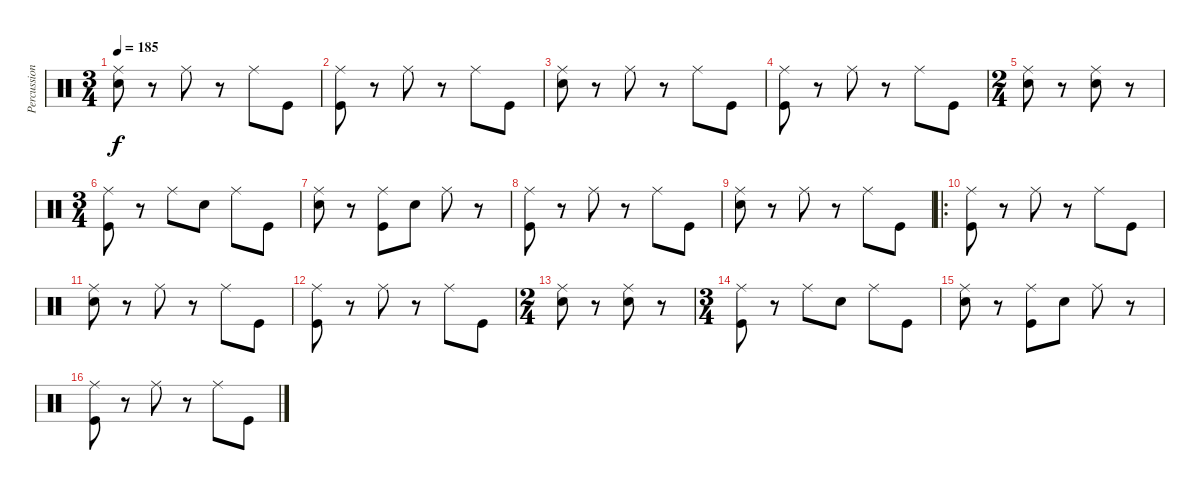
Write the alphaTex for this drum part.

\track ("Percussion" "Percussion") {instrument percussion}
\staff {score}
\articulation defaults
\ts (3 4)
\tempo 185
\clef neutral
\ks c
("Ride (middle)" "Snare (hit) 2").8{dy f} r.8 "Ride (middle)".8 r.8 "Ride (middle)".8 "Kick (hit)".8 |
("Ride (middle)" "Kick (hit)").8 r.8 "Ride (middle)".8 r.8 "Ride (middle)".8 "Kick (hit)".8 |
("Ride (middle)" "Snare (hit) 2").8 r.8 "Ride (middle)".8 r.8 "Ride (middle)".8 "Kick (hit)".8 |
("Ride (middle)" "Kick (hit)").8 r.8 "Ride (middle)".8 r.8 "Ride (middle)".8 "Kick (hit)".8 |
\ts (2 4)
("Ride (middle)" "Snare (hit) 2").8 r.8 ("Ride (middle)" "Snare (hit) 2").8 r.8 |
\ts (3 4)
("Ride (middle)" "Kick (hit)").8 r.8 "Ride (middle)".8 "Snare (hit) 2".8 "Ride (middle)".8 "Kick (hit)".8 |
("Ride (middle)" "Snare (hit) 2").8 r.8 ("Ride (middle)" "Kick (hit)").8 "Snare (hit) 2".8 "Ride (middle)".8 r.8 |
("Ride (middle)" "Kick (hit)").8 r.8 "Ride (middle)".8 r.8 "Ride (middle)".8 "Kick (hit)".8 |
("Ride (middle)" "Snare (hit) 2").8 r.8 "Ride (middle)".8 r.8 "Ride (middle)".8 "Kick (hit)".8 |
\ro
("Ride (middle)" "Kick (hit)").8 r.8 "Ride (middle)".8 r.8 "Ride (middle)".8 "Kick (hit)".8 |
("Ride (middle)" "Snare (hit) 2").8 r.8 "Ride (middle)".8 r.8 "Ride (middle)".8 "Kick (hit)".8 |
("Ride (middle)" "Kick (hit)").8 r.8 "Ride (middle)".8 r.8 "Ride (middle)".8 "Kick (hit)".8 |
\ts (2 4)
("Ride (middle)" "Snare (hit) 2").8 r.8 ("Ride (middle)" "Snare (hit) 2").8 r.8 |
\ts (3 4)
("Ride (middle)" "Kick (hit)").8 r.8 "Ride (middle)".8 "Snare (hit) 2".8 "Ride (middle)".8 "Kick (hit)".8 |
("Ride (middle)" "Snare (hit) 2").8 r.8 ("Ride (middle)" "Kick (hit)").8 "Snare (hit) 2".8 "Ride (middle)".8 r.8 |
("Ride (middle)" "Kick (hit)").8 r.8 "Ride (middle)".8 r.8 "Ride (middle)".8 "Kick (hit)".8
